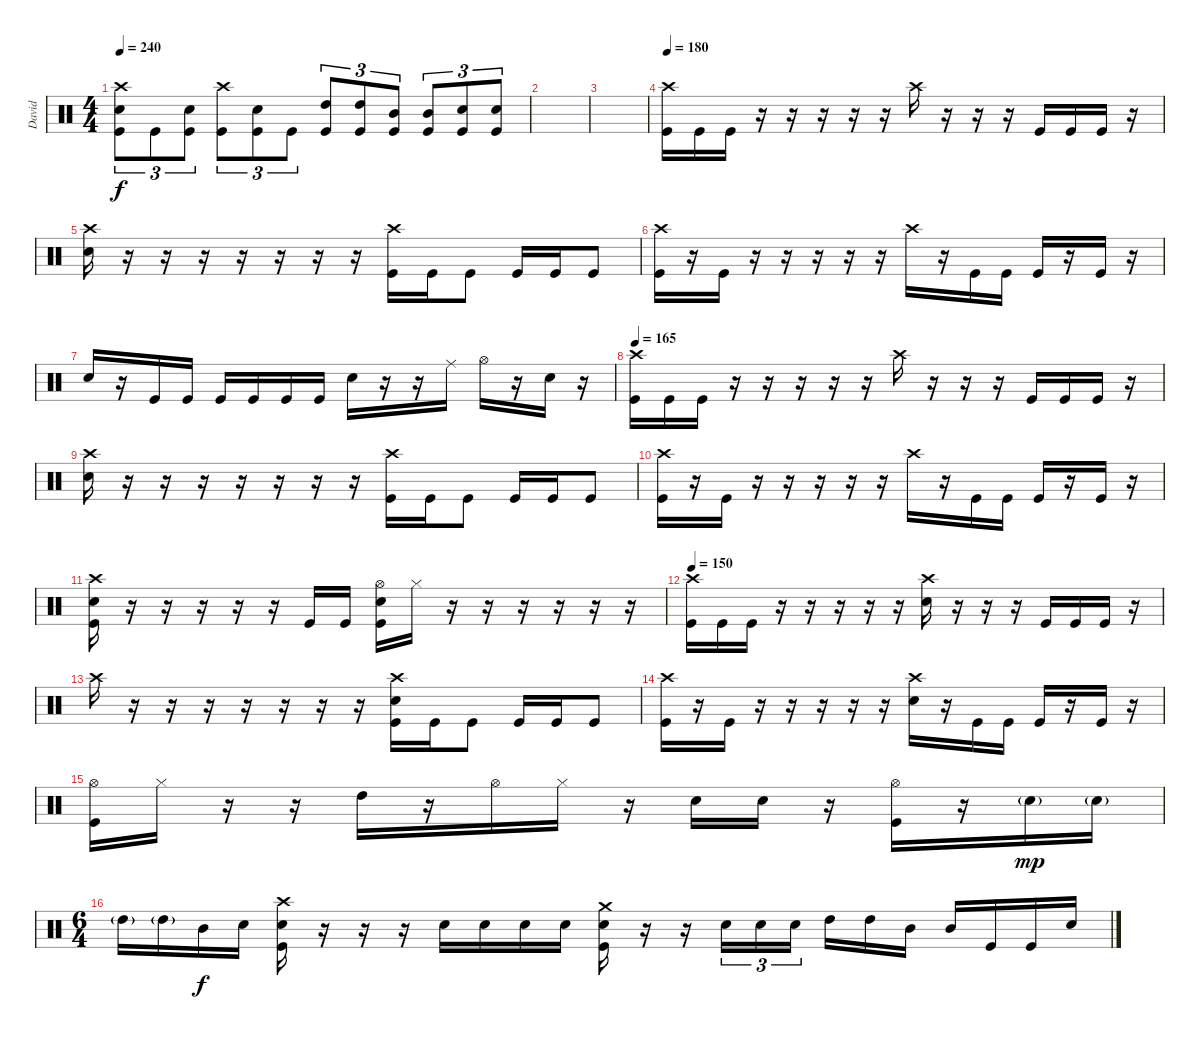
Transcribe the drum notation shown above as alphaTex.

\track ("David" "David") {instrument percussion}
\staff {score}
\articulation defaults
\ts (4 4)
\tempo 240
\clef neutral
\ks c
("Crash high (hit)" "Electric Snare (hit)" "Kick (hit)").8{tu (3 2) dy f} "Kick (hit)".8{tu (3 2)} ("Electric Snare (hit)" "Kick (hit)").8{tu (3 2)} ("Crash high (hit)" "Kick (hit)").8{tu (3 2)} ("Electric Snare (hit)" "Kick (hit)").8{tu (3 2)} "Kick (hit)".8{tu (3 2)} ("High Tom (hit)" "Kick (hit)").8{tu (3 2)} ("High Tom (hit)" "Kick (hit)").8{tu (3 2)} ("Mid Tom (hit)" "Kick (hit)").8{tu (3 2)} ("Mid Tom (hit)" "Kick (hit)").8{tu (3 2)} ("Electric Snare (hit)" "Kick (hit)").8{tu (3 2)} ("Electric Snare (hit)" "Kick (hit)").8{tu (3 2)} |
|
|
\tempo 160
\tempo 180
("Crash high (hit)" "Kick (hit)").16 "Kick (hit)".16 "Kick (hit)".16 r.16 r.16 r.16 r.16 r.16 "Crash high (hit)".16 r.16 r.16 r.16 "Kick (hit)".16 "Kick (hit)".16 "Kick (hit)".16 r.16 |
("Crash high (hit)" "Electric Snare (hit)").16 r.16 r.16 r.16 r.16 r.16 r.16 r.16 ("Crash high (hit)" "Kick (hit)").16 "Kick (hit)".16 "Kick (hit)".8 "Kick (hit)".16 "Kick (hit)".16 "Kick (hit)".8 |
("Crash high (hit)" "Kick (hit)").16 r.16 "Kick (hit)".16 r.16 r.16 r.16 r.16 r.16 "Crash high (hit)".16 r.16 "Kick (hit)".16 "Kick (hit)".16 "Kick (hit)".16 r.16 "Kick (hit)".16 r.16 |
"Electric Snare (hit)".16 r.16 "Kick (hit)".16 "Kick (hit)".16 "Kick (hit)".16 "Kick (hit)".16 "Kick (hit)".16 "Kick (hit)".16 "Electric Snare (hit)".16 r.16 r.16 "Ride (middle)".16 "Hi-Hat (open)".16 r.16 "Electric Snare (hit)".16 r.16 |
\tempo 160
\tempo 165
("Crash high (hit)" "Kick (hit)").16 "Kick (hit)".16 "Kick (hit)".16 r.16 r.16 r.16 r.16 r.16 "Crash high (hit)".16 r.16 r.16 r.16 "Kick (hit)".16 "Kick (hit)".16 "Kick (hit)".16 r.16 |
("Crash high (hit)" "Electric Snare (hit)").16 r.16 r.16 r.16 r.16 r.16 r.16 r.16 ("Crash high (hit)" "Kick (hit)").16 "Kick (hit)".16 "Kick (hit)".8 "Kick (hit)".16 "Kick (hit)".16 "Kick (hit)".8 |
("Crash high (hit)" "Kick (hit)").16 r.16 "Kick (hit)".16 r.16 r.16 r.16 r.16 r.16 "Crash high (hit)".16 r.16 "Kick (hit)".16 "Kick (hit)".16 "Kick (hit)".16 r.16 "Kick (hit)".16 r.16 |
("Crash high (hit)" "Electric Snare (hit)" "Kick (hit)").16 r.16 r.16 r.16 r.16 r.16 "Kick (hit)".16 "Kick (hit)".16 ("Hi-Hat (open)" "Electric Snare (hit)" "Kick (hit)").16 "Hi-Hat (closed)".16 r.16 r.16 r.16 r.16 r.16 r.16 |
\tempo 160
\tempo 150
("Crash high (hit)" "Kick (hit)").16 "Kick (hit)".16 "Kick (hit)".16 r.16 r.16 r.16 r.16 r.16 ("Crash high (hit)" "Electric Snare (hit)").16 r.16 r.16 r.16 "Kick (hit)".16 "Kick (hit)".16 "Kick (hit)".16 r.16 |
"Crash high (hit)".16 r.16 r.16 r.16 r.16 r.16 r.16 r.16 ("Crash high (hit)" "Electric Snare (hit)" "Kick (hit)").16 "Kick (hit)".16 "Kick (hit)".8 "Kick (hit)".16 "Kick (hit)".16 "Kick (hit)".8 |
("Crash high (hit)" "Kick (hit)").16 r.16 "Kick (hit)".16 r.16 r.16 r.16 r.16 r.16 ("Crash high (hit)" "Electric Snare (hit)").16 r.16 "Kick (hit)".16 "Kick (hit)".16 "Kick (hit)".16 r.16 "Kick (hit)".16 r.16 |
("Hi-Hat (open)" "Kick (hit)").16 "Hi-Hat (closed)".16 r.16 r.16 "High Tom (hit)".16 r.16 "Hi-Hat (open)".16 "Hi-Hat (closed)".16 r.16 "Electric Snare (hit)".16 "Electric Snare (hit)".16 r.16 ("Hi-Hat (open)" "Kick (hit)").16 r.16 "Electric Snare (hit)"{g}.16{dy mp} "Electric Snare (hit)"{g}.16 |
\ts (6 4)
"High Tom (hit)"{g}.16 "High Tom (hit)"{g}.16 "Mid Tom (hit)".16{dy f} "Electric Snare (hit)".16 ("Crash high (hit)" "Electric Snare (hit)" "Kick (hit)").16 r.16 r.16 r.16 "Electric Snare (hit)".16 "Electric Snare (hit)".16 "Electric Snare (hit)".16 "Electric Snare (hit)".16 ("Crash medium (hit)" "Electric Snare (hit)" "Kick (hit)").16 r.16 r.16 "Electric Snare (hit)".16{tu (3 2)} "Electric Snare (hit)".16{tu (3 2)} "Electric Snare (hit)".16{tu (3 2) beam splitsecondary} "High Tom (hit)".16 "High Tom (hit)".16 "Mid Tom (hit)".16 "Mid Tom (hit)".16 "Kick (hit)".16 "Kick (hit)".16 "Electric Snare (hit)".16
